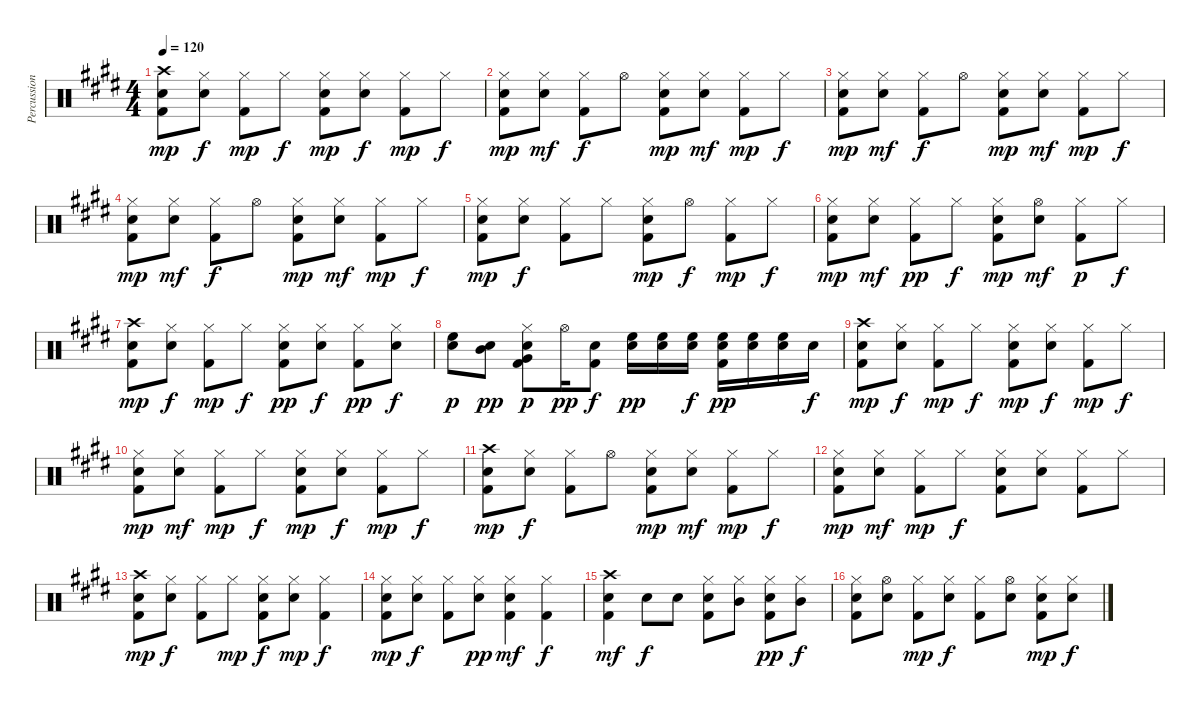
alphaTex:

\track ("Percussion" "Percussion") {instrument percussion}
\staff {score}
\articulation defaults
\ts (4 4)
\tempo 120
\clef neutral
\ks e
("Crash high (hit)" "Snare (hit) 2" "Kick (hit) 2").8{dy mp} ("Hi-Hat (closed)" "Snare (hit) 2").8{dy f} ("Hi-Hat (closed)" "Kick (hit) 2").8{dy mp} "Hi-Hat (closed)".8{dy f} ("Hi-Hat (closed)" "Snare (hit) 2" "Kick (hit) 2").8{dy mp} ("Hi-Hat (closed)" "Snare (hit) 2").8{dy f} ("Hi-Hat (closed)" "Kick (hit) 2").8{dy mp} "Hi-Hat (closed)".8{dy f} |
("Hi-Hat (closed)" "Snare (hit) 2" "Kick (hit) 2").8{dy mp} ("Hi-Hat (closed)" "Snare (hit) 2").8{dy mf} ("Hi-Hat (closed)" "Kick (hit) 2").8{dy f} "Hi-Hat (open)".8 ("Hi-Hat (closed)" "Snare (hit) 2" "Kick (hit) 2").8{dy mp} ("Hi-Hat (closed)" "Snare (hit) 2").8{dy mf} ("Hi-Hat (closed)" "Kick (hit) 2").8{dy mp} "Hi-Hat (closed)".8{dy f} |
("Hi-Hat (closed)" "Snare (hit) 2" "Kick (hit) 2").8{dy mp} ("Hi-Hat (closed)" "Snare (hit) 2").8{dy mf} ("Hi-Hat (closed)" "Kick (hit) 2").8{dy f} "Hi-Hat (open)".8 ("Hi-Hat (closed)" "Snare (hit) 2" "Kick (hit) 2").8{dy mp} ("Hi-Hat (closed)" "Snare (hit) 2").8{dy mf} ("Hi-Hat (closed)" "Kick (hit) 2").8{dy mp} "Hi-Hat (closed)".8{dy f} |
("Hi-Hat (closed)" "Snare (hit) 2" "Kick (hit) 2").8{dy mp} ("Hi-Hat (closed)" "Snare (hit) 2").8{dy mf} ("Hi-Hat (closed)" "Kick (hit) 2").8{dy f} "Hi-Hat (open)".8 ("Hi-Hat (closed)" "Snare (hit) 2" "Kick (hit) 2").8{dy mp} ("Hi-Hat (closed)" "Snare (hit) 2").8{dy mf} ("Hi-Hat (closed)" "Kick (hit) 2").8{dy mp} "Hi-Hat (closed)".8{dy f} |
("Hi-Hat (closed)" "Snare (hit) 2" "Kick (hit) 2").8{dy mp} ("Hi-Hat (closed)" "Snare (hit) 2").8{dy f} ("Hi-Hat (closed)" "Kick (hit) 2").8 "Hi-Hat (closed)".8 ("Hi-Hat (closed)" "Snare (hit) 2" "Kick (hit) 2").8{dy mp} "Hi-Hat (open)".8{dy f} ("Hi-Hat (closed)" "Kick (hit) 2").8{dy mp} "Hi-Hat (closed)".8{dy f} |
("Hi-Hat (closed)" "Snare (hit) 2" "Kick (hit) 2").8{dy mp} ("Hi-Hat (closed)" "Snare (hit) 2").8{dy mf} ("Hi-Hat (closed)" "Kick (hit) 2").8{dy pp} "Hi-Hat (closed)".8{dy f} ("Hi-Hat (closed)" "Snare (hit) 2" "Kick (hit) 2").8{dy mp} ("Hi-Hat (open)" "Snare (hit) 2").8{dy mf} ("Hi-Hat (closed)" "Kick (hit) 2").8{dy p} "Hi-Hat (closed)".8{dy f} |
("Crash high (hit)" "Snare (hit) 2" "Kick (hit) 2").8{dy mp} ("Hi-Hat (closed)" "Snare (hit) 2").8{dy f} ("Hi-Hat (closed)" "Kick (hit) 2").8{dy mp} "Hi-Hat (closed)".8{dy f} ("Hi-Hat (closed)" "Snare (hit) 2" "Kick (hit) 2").8{dy pp} ("Hi-Hat (closed)" "Snare (hit) 2").8{dy f} ("Hi-Hat (closed)" "Kick (hit) 2").8{dy pp} ("Hi-Hat (closed)" "Snare (hit) 2").8{dy f} |
("High Floor Tom (hit)" "Snare (hit) 2").8{dy p} ("Mid Tom (hit)" "Snare (hit) 2").8{dy pp} ("Hi-Hat (closed)" "Very Low Tom (hit)" "Snare (hit) 2" "Kick (hit) 2").8{dy p} "Hi-Hat (open)".16{dy pp} ("Snare (hit) 2" "Kick (hit) 2").8{dy f} ("High Floor Tom (hit)" "Snare (hit) 2").16{dy pp} ("High Floor Tom (hit)" "Snare (hit) 2").16 ("High Floor Tom (hit)" "Snare (hit) 2").16{dy f} ("High Floor Tom (hit)" "Snare (hit) 2" "Kick (hit) 2").16{dy pp} ("High Floor Tom (hit)" "Snare (hit) 2").16 ("High Floor Tom (hit)" "Snare (hit) 2").16 "Snare (hit) 2".16{dy f} |
("Crash high (hit)" "Snare (hit) 2" "Kick (hit) 2").8{dy mp} ("Hi-Hat (closed)" "Snare (hit) 2").8{dy f} ("Hi-Hat (closed)" "Kick (hit) 2").8{dy mp} "Hi-Hat (closed)".8{dy f} ("Hi-Hat (closed)" "Snare (hit) 2" "Kick (hit) 2").8{dy mp} ("Hi-Hat (closed)" "Snare (hit) 2").8{dy f} ("Hi-Hat (closed)" "Kick (hit) 2").8{dy mp} "Hi-Hat (closed)".8{dy f} |
("Hi-Hat (closed)" "Snare (hit) 2" "Kick (hit) 2").8{dy mp} ("Hi-Hat (closed)" "Snare (hit) 2").8{dy mf} ("Hi-Hat (closed)" "Kick (hit) 2").8{dy mp} "Hi-Hat (closed)".8{dy f} ("Hi-Hat (closed)" "Snare (hit) 2" "Kick (hit) 2").8{dy mp} ("Hi-Hat (closed)" "Snare (hit) 2").8{dy f} ("Hi-Hat (closed)" "Kick (hit) 2").8{dy mp} "Hi-Hat (closed)".8{dy f} |
("Crash high (hit)" "Snare (hit) 2" "Kick (hit) 2").8{dy mp} ("Hi-Hat (closed)" "Snare (hit) 2").8{dy f} ("Hi-Hat (closed)" "Kick (hit) 2").8 "Hi-Hat (open)".8 ("Hi-Hat (closed)" "Snare (hit) 2" "Kick (hit) 2").8{dy mp} ("Hi-Hat (closed)" "Snare (hit) 2").8{dy mf} ("Hi-Hat (closed)" "Kick (hit) 2").8{dy mp} "Hi-Hat (closed)".8{dy f} |
("Hi-Hat (closed)" "Snare (hit) 2" "Kick (hit) 2").8{dy mp} ("Hi-Hat (closed)" "Snare (hit) 2").8{dy mf} ("Hi-Hat (closed)" "Kick (hit) 2").8{dy mp} "Hi-Hat (closed)".8{dy f} ("Hi-Hat (closed)" "Snare (hit) 2" "Kick (hit) 2").8 ("Hi-Hat (closed)" "Snare (hit) 2").8 ("Hi-Hat (closed)" "Kick (hit) 2").8 "Hi-Hat (closed)".8 |
("Crash high (hit)" "Snare (hit) 2" "Kick (hit) 2").8{dy mp} ("Hi-Hat (closed)" "Snare (hit) 2").8{dy f} ("Hi-Hat (closed)" "Kick (hit) 2").8 "Hi-Hat (closed)".8{dy mp} ("Hi-Hat (closed)" "Snare (hit) 2" "Kick (hit) 2").8{dy f} ("Hi-Hat (closed)" "Snare (hit) 2").8{dy mp} ("Hi-Hat (closed)" "Kick (hit) 2").4{dy f} |
("Hi-Hat (closed)" "Snare (hit) 2" "Kick (hit) 2").8{dy mp} ("Hi-Hat (closed)" "Snare (hit) 2").8{dy f} ("Hi-Hat (closed)" "Kick (hit) 2").8 ("Hi-Hat (closed)" "Snare (hit) 2").8{dy pp} ("Hi-Hat (closed)" "Snare (hit) 2" "Kick (hit) 2").4{dy mf} ("Hi-Hat (closed)" "Kick (hit) 2").4{dy f} |
("Crash high (hit)" "Snare (hit) 2" "Kick (hit) 2").4{dy mf} "Snare (hit) 2".8{dy f} "Snare (hit) 2".8 ("Hi-Hat (closed)" "Snare (hit) 2" "Kick (hit) 2").8 ("Hi-Hat (closed)" "Mid Tom (hit)").8 ("Hi-Hat (closed)" "Snare (hit) 2" "Kick (hit) 2").8{dy pp} ("Hi-Hat (closed)" "Mid Tom (hit)").8{dy f} |
("Hi-Hat (closed)" "Snare (hit) 2" "Kick (hit) 2").8 ("Hi-Hat (open)" "Snare (hit) 2").8 ("Hi-Hat (closed)" "Kick (hit) 2").8{dy mp} ("Hi-Hat (closed)" "Snare (hit) 2").8{dy f} ("Hi-Hat (closed)" "Kick (hit) 2").8 ("Hi-Hat (open)" "Snare (hit) 2").8 ("Hi-Hat (closed)" "Snare (hit) 2" "Kick (hit) 2").8{dy mp} ("Hi-Hat (closed)" "Snare (hit) 2").8{dy f}
